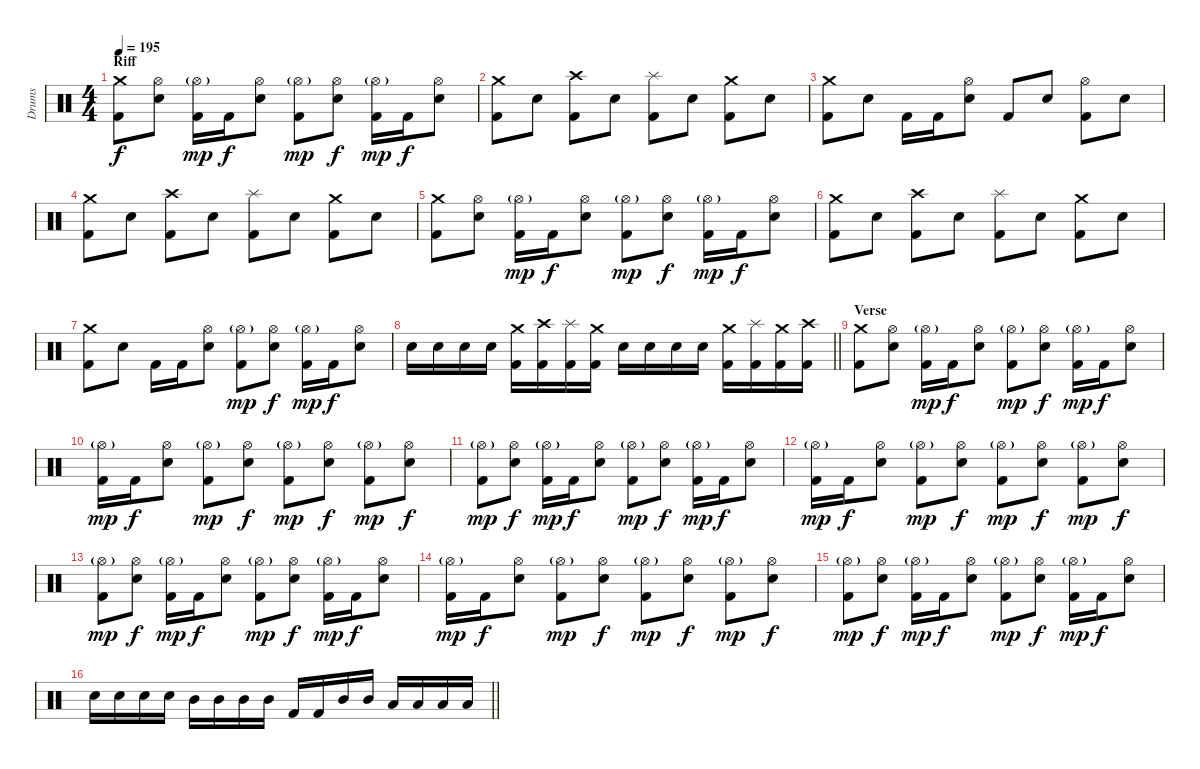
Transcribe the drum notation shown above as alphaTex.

\track ("Drums" "Drums") {instrument percussion}
\staff {score}
\articulation defaults
\ts (4 4)
\section ("" "Riff")
\tempo 195
\clef neutral
\ks c
("Crash medium (hit)" "Kick (hit) 2").8{dy f} ("Hi-Hat (open)" "Snare (hit) 2").8 ("Hi-Hat (open)"{g} "Kick (hit) 2").16{dy mp} "Kick (hit) 2".16{dy f} ("Hi-Hat (open)" "Snare (hit) 2").8 ("Hi-Hat (open)"{g} "Kick (hit) 2").8{dy mp} ("Hi-Hat (open)" "Snare (hit) 2").8{dy f} ("Hi-Hat (open)"{g} "Kick (hit) 2").16{dy mp} "Kick (hit) 2".16{dy f} ("Hi-Hat (open)" "Snare (hit) 2").8 |
("Crash medium (hit)" "Kick (hit) 2").8 "Snare (hit) 2".8 ("Crash high (hit)" "Kick (hit) 2").8 "Snare (hit) 2".8 ("Splash (hit)" "Kick (hit) 2").8 "Snare (hit) 2".8 ("Crash medium (hit)" "Kick (hit) 2").8 "Snare (hit) 2".8 |
("Crash medium (hit)" "Kick (hit) 2").8 "Snare (hit) 2".8 "Kick (hit) 2".16 "Kick (hit) 2".16 ("Hi-Hat (open)" "Snare (hit) 2").8 "Kick (hit) 2".8 "Snare (hit) 2".8 ("Hi-Hat (open)" "Kick (hit) 2").8 "Snare (hit) 2".8 |
("Crash medium (hit)" "Kick (hit) 2").8 "Snare (hit) 2".8 ("Crash high (hit)" "Kick (hit) 2").8 "Snare (hit) 2".8 ("Splash (hit)" "Kick (hit) 2").8 "Snare (hit) 2".8 ("Crash medium (hit)" "Kick (hit) 2").8 "Snare (hit) 2".8 |
("Crash medium (hit)" "Kick (hit) 2").8 ("Hi-Hat (open)" "Snare (hit) 2").8 ("Hi-Hat (open)"{g} "Kick (hit) 2").16{dy mp} "Kick (hit) 2".16{dy f} ("Hi-Hat (open)" "Snare (hit) 2").8 ("Hi-Hat (open)"{g} "Kick (hit) 2").8{dy mp} ("Hi-Hat (open)" "Snare (hit) 2").8{dy f} ("Hi-Hat (open)"{g} "Kick (hit) 2").16{dy mp} "Kick (hit) 2".16{dy f} ("Hi-Hat (open)" "Snare (hit) 2").8 |
("Crash medium (hit)" "Kick (hit) 2").8 "Snare (hit) 2".8 ("Crash high (hit)" "Kick (hit) 2").8 "Snare (hit) 2".8 ("Splash (hit)" "Kick (hit) 2").8 "Snare (hit) 2".8 ("Crash medium (hit)" "Kick (hit) 2").8 "Snare (hit) 2".8 |
("Crash medium (hit)" "Kick (hit) 2").8 "Snare (hit) 2".8 "Kick (hit) 2".16 "Kick (hit) 2".16 ("Hi-Hat (open)" "Snare (hit) 2").8 ("Hi-Hat (open)"{g} "Kick (hit) 2").8{dy mp} ("Hi-Hat (open)" "Snare (hit) 2").8{dy f} ("Hi-Hat (open)"{g} "Kick (hit) 2").16{dy mp} "Kick (hit) 2".16{dy f} ("Hi-Hat (open)" "Snare (hit) 2").8 |
\barLineRight lightlight "Snare (hit) 2".16 "Snare (hit) 2".16 "Snare (hit) 2".16 "Snare (hit) 2".16
("Crash medium (hit)" "Kick (hit) 2").16 ("Crash high (hit)" "Kick (hit) 2").16 ("Splash (hit)" "Kick (hit) 2").16 ("Crash medium (hit)" "Kick (hit) 2").16 "Snare (hit) 2".16 "Snare (hit) 2".16 "Snare (hit) 2".16 "Snare (hit) 2".16 ("Crash medium (hit)" "Kick (hit) 2").16 ("Splash (hit)" "Kick (hit) 2").16 ("Crash medium (hit)" "Kick (hit) 2").16 ("Crash high (hit)" "Kick (hit) 2").16 |
\section ("" "Verse")
("Crash medium (hit)" "Kick (hit) 2").8 ("Hi-Hat (open)" "Snare (hit) 2").8 ("Hi-Hat (open)"{g} "Kick (hit) 2").16{dy mp} "Kick (hit) 2".16{dy f} ("Hi-Hat (open)" "Snare (hit) 2").8 ("Hi-Hat (open)"{g} "Kick (hit) 2").8{dy mp} ("Hi-Hat (open)" "Snare (hit) 2").8{dy f} ("Hi-Hat (open)"{g} "Kick (hit) 2").16{dy mp} "Kick (hit) 2".16{dy f} ("Hi-Hat (open)" "Snare (hit) 2").8 |
("Hi-Hat (open)"{g} "Kick (hit) 2").16{dy mp} "Kick (hit) 2".16{dy f} ("Hi-Hat (open)" "Snare (hit) 2").8 ("Hi-Hat (open)"{g} "Kick (hit) 2").8{dy mp} ("Hi-Hat (open)" "Snare (hit) 2").8{dy f} ("Hi-Hat (open)"{g} "Kick (hit) 2").8{dy mp} ("Hi-Hat (open)" "Snare (hit) 2").8{dy f} ("Hi-Hat (open)"{g} "Kick (hit) 2").8{dy mp} ("Hi-Hat (open)" "Snare (hit) 2").8{dy f} |
("Hi-Hat (open)"{g} "Kick (hit) 2").8{dy mp} ("Hi-Hat (open)" "Snare (hit) 2").8{dy f} ("Hi-Hat (open)"{g} "Kick (hit) 2").16{dy mp} "Kick (hit) 2".16{dy f} ("Hi-Hat (open)" "Snare (hit) 2").8 ("Hi-Hat (open)"{g} "Kick (hit) 2").8{dy mp} ("Hi-Hat (open)" "Snare (hit) 2").8{dy f} ("Hi-Hat (open)"{g} "Kick (hit) 2").16{dy mp} "Kick (hit) 2".16{dy f} ("Hi-Hat (open)" "Snare (hit) 2").8 |
("Hi-Hat (open)"{g} "Kick (hit) 2").16{dy mp} "Kick (hit) 2".16{dy f} ("Hi-Hat (open)" "Snare (hit) 2").8 ("Hi-Hat (open)"{g} "Kick (hit) 2").8{dy mp} ("Hi-Hat (open)" "Snare (hit) 2").8{dy f} ("Hi-Hat (open)"{g} "Kick (hit) 2").8{dy mp} ("Hi-Hat (open)" "Snare (hit) 2").8{dy f} ("Hi-Hat (open)"{g} "Kick (hit) 2").8{dy mp} ("Hi-Hat (open)" "Snare (hit) 2").8{dy f} |
("Hi-Hat (open)"{g} "Kick (hit) 2").8{dy mp} ("Hi-Hat (open)" "Snare (hit) 2").8{dy f} ("Hi-Hat (open)"{g} "Kick (hit) 2").16{dy mp} "Kick (hit) 2".16{dy f} ("Hi-Hat (open)" "Snare (hit) 2").8 ("Hi-Hat (open)"{g} "Kick (hit) 2").8{dy mp} ("Hi-Hat (open)" "Snare (hit) 2").8{dy f} ("Hi-Hat (open)"{g} "Kick (hit) 2").16{dy mp} "Kick (hit) 2".16{dy f} ("Hi-Hat (open)" "Snare (hit) 2").8 |
("Hi-Hat (open)"{g} "Kick (hit) 2").16{dy mp} "Kick (hit) 2".16{dy f} ("Hi-Hat (open)" "Snare (hit) 2").8 ("Hi-Hat (open)"{g} "Kick (hit) 2").8{dy mp} ("Hi-Hat (open)" "Snare (hit) 2").8{dy f} ("Hi-Hat (open)"{g} "Kick (hit) 2").8{dy mp} ("Hi-Hat (open)" "Snare (hit) 2").8{dy f} ("Hi-Hat (open)"{g} "Kick (hit) 2").8{dy mp} ("Hi-Hat (open)" "Snare (hit) 2").8{dy f} |
("Hi-Hat (open)"{g} "Kick (hit) 2").8{dy mp} ("Hi-Hat (open)" "Snare (hit) 2").8{dy f} ("Hi-Hat (open)"{g} "Kick (hit) 2").16{dy mp} "Kick (hit) 2".16{dy f} ("Hi-Hat (open)" "Snare (hit) 2").8 ("Hi-Hat (open)"{g} "Kick (hit) 2").8{dy mp} ("Hi-Hat (open)" "Snare (hit) 2").8{dy f} ("Hi-Hat (open)"{g} "Kick (hit) 2").16{dy mp} "Kick (hit) 2".16{dy f} ("Hi-Hat (open)" "Snare (hit) 2").8 |
\barLineRight lightlight "Snare (hit) 2".16 "Snare (hit) 2".16 "Snare (hit) 2".16 "Snare (hit) 2".16 "Mid Tom (hit)".16 "Mid Tom (hit)".16 "Mid Tom (hit)".16 "Mid Tom (hit)".16 "Kick (hit) 2".16 "Kick (hit) 2".16 "Mid Tom (hit)".16 "Mid Tom (hit)".16 "Low Tom (hit)".16 "Low Tom (hit)".16 "Low Tom (hit)".16 "Low Tom (hit)".16
